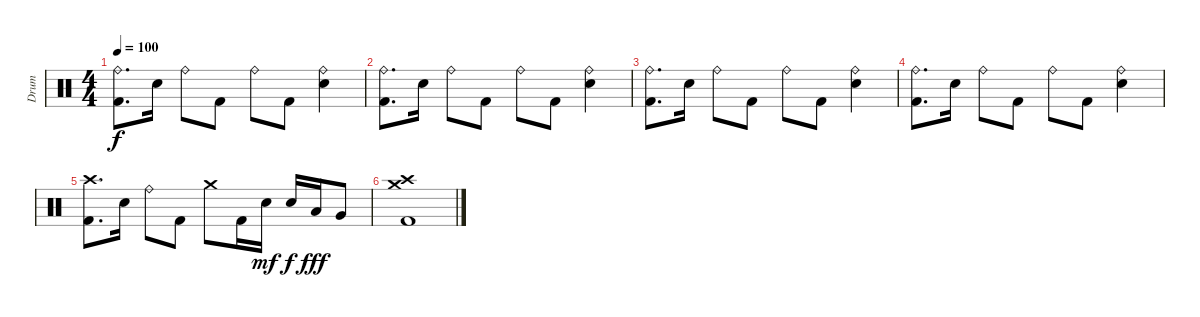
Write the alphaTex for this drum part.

\track ("Drum" "Drum") {instrument percussion}
\staff {score}
\articulation defaults
\ts (4 4)
\tempo 100
\clef neutral
\ks c
("Ride (bell)" "Kick (hit) 2").8{d dy f} "Electric Snare (hit)".16 "Ride (bell)".8 "Kick (hit) 2".8 "Ride (bell)".8 "Kick (hit) 2".8 ("Ride (bell)" "Electric Snare (hit)").4 |
("Ride (bell)" "Kick (hit) 2").8{d} "Electric Snare (hit)".16 "Ride (bell)".8 "Kick (hit) 2".8 "Ride (bell)".8 "Kick (hit) 2".8 ("Ride (bell)" "Electric Snare (hit)").4 |
("Ride (bell)" "Kick (hit) 2").8{d} "Electric Snare (hit)".16 "Ride (bell)".8 "Kick (hit) 2".8 "Ride (bell)".8 "Kick (hit) 2".8 ("Ride (bell)" "Electric Snare (hit)").4 |
("Ride (bell)" "Kick (hit) 2").8{d} "Electric Snare (hit)".16 "Ride (bell)".8 "Kick (hit) 2".8 "Ride (bell)".8 "Kick (hit) 2".8 ("Ride (bell)" "Electric Snare (hit)").4 |
("Crash high (hit)" "Kick (hit) 2").8{d} "Electric Snare (hit)".16 "Ride (bell)".8 "Kick (hit) 2".8 "Crash medium (hit)".8 "Kick (hit) 2".16 "Electric Snare (hit)".16{dy mf} "Electric Snare (hit)".16{dy f} "Low Tom (hit)".16{dy fff} "Very Low Tom (hit)".8 |
("Crash high (hit)" "Kick (hit) 2" "Crash medium (hit)").1
